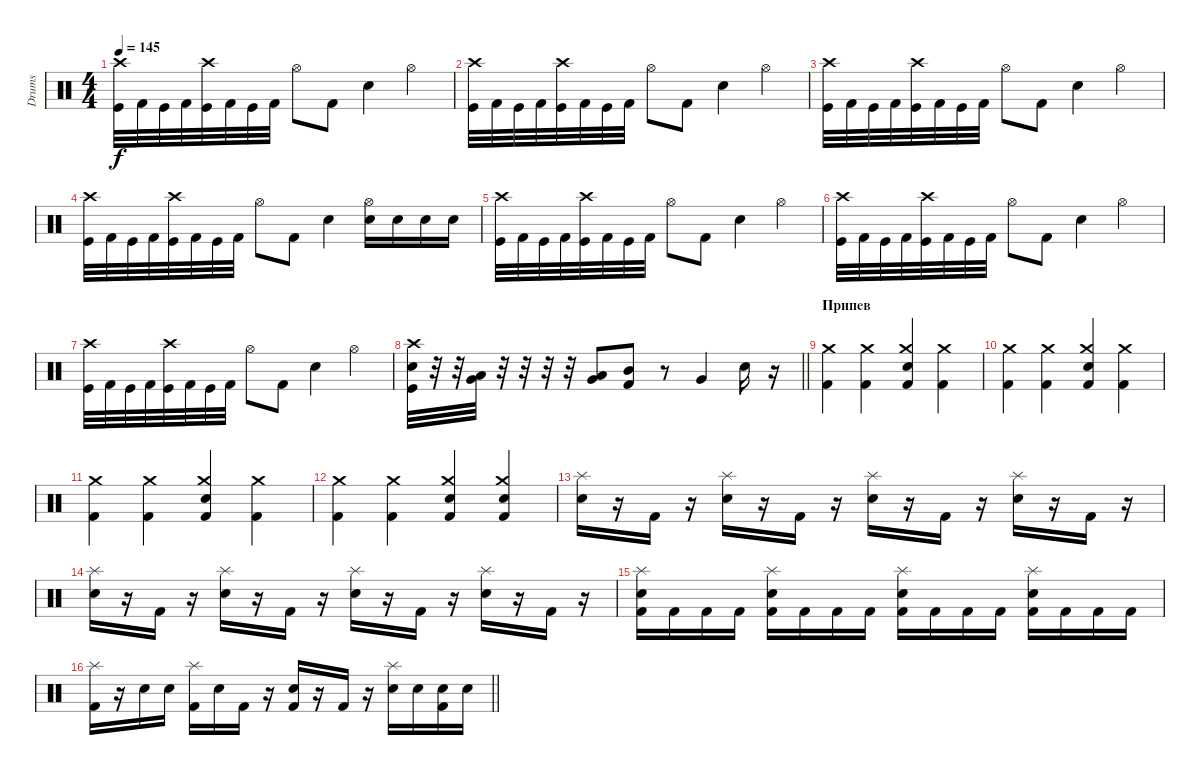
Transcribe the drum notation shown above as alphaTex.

\track ("Drums" "Drums") {instrument percussion}
\staff {score}
\articulation defaults
\ts (4 4)
\tempo 145
\clef neutral
\ks c
("Crash high (hit)" "Kick (hit)").32{dy f} "Kick (hit) 2".32 "Kick (hit)".32 "Kick (hit) 2".32 ("Crash high (hit)" "Kick (hit)").32 "Kick (hit) 2".32 "Kick (hit)".32 "Kick (hit) 2".32 "Hi-Hat (open)".8 "Kick (hit) 2".8 "Snare (hit) 2".4 "Hi-Hat (open)".4 |
("Crash high (hit)" "Kick (hit)").32 "Kick (hit) 2".32 "Kick (hit)".32 "Kick (hit) 2".32 ("Crash high (hit)" "Kick (hit)").32 "Kick (hit) 2".32 "Kick (hit)".32 "Kick (hit) 2".32 "Hi-Hat (open)".8 "Kick (hit) 2".8 "Snare (hit) 2".4 "Hi-Hat (open)".4 |
("Crash high (hit)" "Kick (hit)").32 "Kick (hit) 2".32 "Kick (hit)".32 "Kick (hit) 2".32 ("Crash high (hit)" "Kick (hit)").32 "Kick (hit) 2".32 "Kick (hit)".32 "Kick (hit) 2".32 "Hi-Hat (open)".8 "Kick (hit) 2".8 "Snare (hit) 2".4 "Hi-Hat (open)".4 |
("Crash high (hit)" "Kick (hit)").32 "Kick (hit) 2".32 "Kick (hit)".32 "Kick (hit) 2".32 ("Crash high (hit)" "Kick (hit)").32 "Kick (hit) 2".32 "Kick (hit)".32 "Kick (hit) 2".32 "Hi-Hat (open)".8 "Kick (hit) 2".8 "Snare (hit) 2".4 ("Hi-Hat (open)" "Snare (hit) 2").16 "Snare (hit) 2".16 "Snare (hit) 2".16 "Snare (hit) 2".16 |
("Crash high (hit)" "Kick (hit)").32 "Kick (hit) 2".32 "Kick (hit)".32 "Kick (hit) 2".32 ("Crash high (hit)" "Kick (hit)").32 "Kick (hit) 2".32 "Kick (hit)".32 "Kick (hit) 2".32 "Hi-Hat (open)".8 "Kick (hit) 2".8 "Snare (hit) 2".4 "Hi-Hat (open)".4 |
("Crash high (hit)" "Kick (hit)").32 "Kick (hit) 2".32 "Kick (hit)".32 "Kick (hit) 2".32 ("Crash high (hit)" "Kick (hit)").32 "Kick (hit) 2".32 "Kick (hit)".32 "Kick (hit) 2".32 "Hi-Hat (open)".8 "Kick (hit) 2".8 "Snare (hit) 2".4 "Hi-Hat (open)".4 |
("Crash high (hit)" "Kick (hit)").32 "Kick (hit) 2".32 "Kick (hit)".32 "Kick (hit) 2".32 ("Crash high (hit)" "Kick (hit)").32 "Kick (hit) 2".32 "Kick (hit)".32 "Kick (hit) 2".32 "Hi-Hat (open)".8 "Kick (hit) 2".8 "Snare (hit) 2".4 "Hi-Hat (open)".4 |
\barLineRight lightlight
("Crash high (hit)" "Snare (hit) 2" "Kick (hit)").32 r.32 r.32 ("Low Tom (hit)" "Very Low Tom (hit)").32 r.32 r.32 r.32 r.32 ("Low Tom (hit)" "Very Low Tom (hit)").8 ("Mid Tom (hit)" "Kick (hit) 2").8 r.8 "Very Low Tom (hit)".4 "Snare (hit) 2".16 r.16 |
\section ("" "Припев")
("Crash medium (hit)" "Kick (hit) 2").4 ("Crash medium (hit)" "Kick (hit) 2").4 ("Crash medium (hit)" "Electric Snare (hit)" "Kick (hit) 2").4 ("Crash medium (hit)" "Kick (hit) 2").4 |
("Crash medium (hit)" "Kick (hit) 2").4 ("Crash medium (hit)" "Kick (hit) 2").4 ("Crash medium (hit)" "Electric Snare (hit)" "Kick (hit) 2").4 ("Crash medium (hit)" "Kick (hit) 2").4 |
("Crash medium (hit)" "Kick (hit) 2").4 ("Crash medium (hit)" "Kick (hit) 2").4 ("Crash medium (hit)" "Electric Snare (hit)" "Kick (hit) 2").4 ("Crash medium (hit)" "Kick (hit) 2").4 |
("Crash medium (hit)" "Kick (hit) 2").4 ("Crash medium (hit)" "Kick (hit) 2").4 ("Crash medium (hit)" "Electric Snare (hit)" "Kick (hit) 2").4 ("Crash medium (hit)" "Electric Snare (hit)" "Kick (hit) 2").4 |
("Splash (hit)" "Electric Snare (hit)").16 r.16 "Kick (hit) 2".16 r.16 ("Splash (hit)" "Electric Snare (hit)").16 r.16 "Kick (hit) 2".16 r.16 ("Splash (hit)" "Electric Snare (hit)").16 r.16 "Kick (hit) 2".16 r.16 ("Splash (hit)" "Electric Snare (hit)").16 r.16 "Kick (hit) 2".16 r.16 |
("Splash (hit)" "Electric Snare (hit)").16 r.16 "Kick (hit) 2".16 r.16 ("Splash (hit)" "Electric Snare (hit)").16 r.16 "Kick (hit) 2".16 r.16 ("Splash (hit)" "Electric Snare (hit)").16 r.16 "Kick (hit) 2".16 r.16 ("Splash (hit)" "Electric Snare (hit)").16 r.16 "Kick (hit) 2".16 r.16 |
("Splash (hit)" "Electric Snare (hit)" "Kick (hit) 2").16 "Kick (hit) 2".16 "Kick (hit) 2".16 "Kick (hit) 2".16 ("Splash (hit)" "Electric Snare (hit)" "Kick (hit) 2").16 "Kick (hit) 2".16 "Kick (hit) 2".16 "Kick (hit) 2".16 ("Splash (hit)" "Electric Snare (hit)" "Kick (hit) 2").16 "Kick (hit) 2".16 "Kick (hit) 2".16 "Kick (hit) 2".16 ("Splash (hit)" "Electric Snare (hit)" "Kick (hit) 2").16 "Kick (hit) 2".16 "Kick (hit) 2".16 "Kick (hit) 2".16 |
\barLineRight lightlight
("Splash (hit)" "Kick (hit) 2").16 r.16 "Electric Snare (hit)".16 "Electric Snare (hit)".16 ("Splash (hit)" "Kick (hit) 2").16 "Electric Snare (hit)".16 "Kick (hit) 2".16 r.16 ("Electric Snare (hit)" "Kick (hit) 2").16 r.16 "Kick (hit) 2".16 r.16 ("Splash (hit)" "Electric Snare (hit)").16 "Electric Snare (hit)".16 ("Electric Snare (hit)" "Kick (hit) 2").16 "Electric Snare (hit)".16
